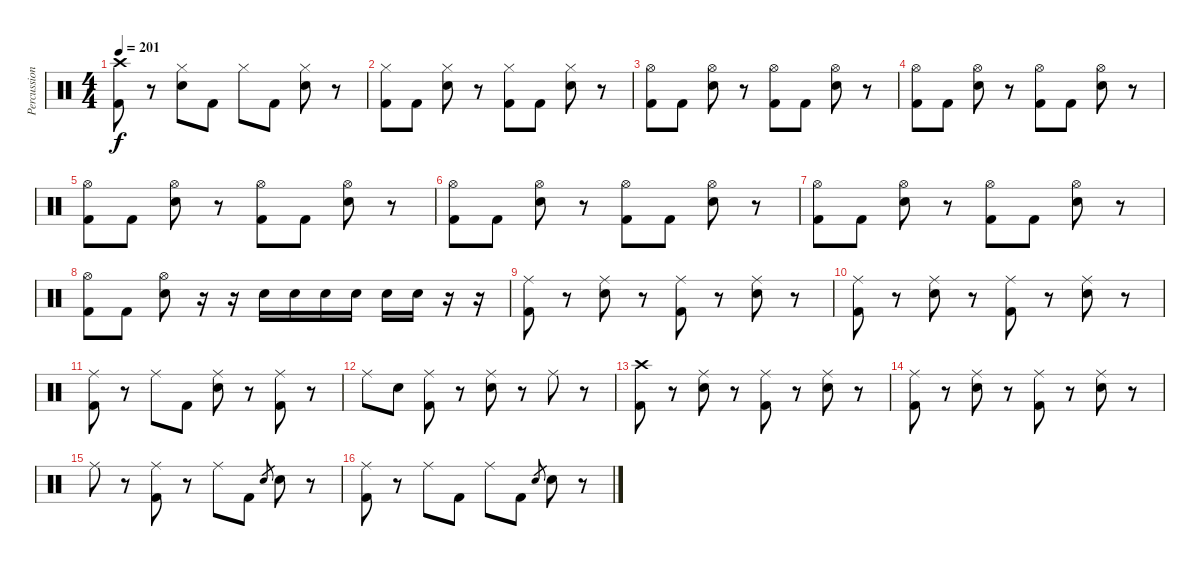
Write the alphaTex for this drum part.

\track ("Percussion" "Percussion") {instrument percussion}
\staff {score}
\articulation defaults
\ts (4 4)
\tempo 201
\clef neutral
\ks c
("Crash high (hit)" "Kick (hit) 2").8{dy f} r.8 ("Hi-Hat (closed)" "Electric Snare (hit)").8 "Kick (hit) 2".8 "Hi-Hat (closed)".8 "Kick (hit) 2".8 ("Hi-Hat (closed)" "Electric Snare (hit)").8 r.8 |
("Hi-Hat (closed)" "Kick (hit) 2").8 "Kick (hit) 2".8 ("Hi-Hat (closed)" "Electric Snare (hit)").8 r.8 ("Hi-Hat (closed)" "Kick (hit) 2").8 "Kick (hit) 2".8 ("Hi-Hat (closed)" "Electric Snare (hit)").8 r.8 |
("Hi-Hat (open)" "Kick (hit) 2").8 "Kick (hit) 2".8 ("Hi-Hat (open)" "Electric Snare (hit)").8 r.8 ("Hi-Hat (open)" "Kick (hit) 2").8 "Kick (hit) 2".8 ("Hi-Hat (open)" "Electric Snare (hit)").8 r.8 |
("Hi-Hat (open)" "Kick (hit) 2").8 "Kick (hit) 2".8 ("Hi-Hat (open)" "Electric Snare (hit)").8 r.8 ("Hi-Hat (open)" "Kick (hit) 2").8 "Kick (hit) 2".8 ("Hi-Hat (open)" "Electric Snare (hit)").8 r.8 |
("Hi-Hat (open)" "Kick (hit) 2").8 "Kick (hit) 2".8 ("Hi-Hat (open)" "Electric Snare (hit)").8 r.8 ("Hi-Hat (open)" "Kick (hit) 2").8 "Kick (hit) 2".8 ("Hi-Hat (open)" "Electric Snare (hit)").8 r.8 |
("Hi-Hat (open)" "Kick (hit) 2").8 "Kick (hit) 2".8 ("Hi-Hat (open)" "Electric Snare (hit)").8 r.8 ("Hi-Hat (open)" "Kick (hit) 2").8 "Kick (hit) 2".8 ("Hi-Hat (open)" "Electric Snare (hit)").8 r.8 |
("Hi-Hat (open)" "Kick (hit) 2").8 "Kick (hit) 2".8 ("Hi-Hat (open)" "Electric Snare (hit)").8 r.8 ("Hi-Hat (open)" "Kick (hit) 2").8 "Kick (hit) 2".8 ("Hi-Hat (open)" "Electric Snare (hit)").8 r.8 |
("Hi-Hat (open)" "Kick (hit) 2").8 "Kick (hit) 2".8 ("Hi-Hat (open)" "Electric Snare (hit)").8 r.16 r.16 "Electric Snare (hit)".16 "Electric Snare (hit)".16 "Electric Snare (hit)".16 "Electric Snare (hit)".16 "Electric Snare (hit)".16 "Electric Snare (hit)".16 r.16 r.16 |
("Ride (middle)" "Kick (hit) 2").8 r.8 ("Ride (middle)" "Electric Snare (hit)").8 r.8 ("Ride (middle)" "Kick (hit) 2").8 r.8 ("Ride (middle)" "Electric Snare (hit)").8 r.8 |
("Ride (middle)" "Kick (hit) 2").8 r.8 ("Ride (middle)" "Electric Snare (hit)").8 r.8 ("Ride (middle)" "Kick (hit) 2").8 r.8 ("Ride (middle)" "Electric Snare (hit)").8 r.8 |
("Ride (middle)" "Kick (hit) 2").8 r.8 "Ride (middle)".8 "Kick (hit) 2".8 ("Ride (middle)" "Electric Snare (hit)").8 r.8 ("Ride (middle)" "Kick (hit) 2").8 r.8 |
"Ride (middle)".8 "Electric Snare (hit)".8 ("Ride (middle)" "Kick (hit) 2").8 r.8 ("Ride (middle)" "Electric Snare (hit)").8 r.8 "Ride (middle)".8 r.8 |
("Crash high (hit)" "Kick (hit) 2").8 r.8 ("Ride (middle)" "Electric Snare (hit)").8 r.8 ("Ride (middle)" "Kick (hit) 2").8 r.8 ("Ride (middle)" "Electric Snare (hit)").8 r.8 |
("Ride (middle)" "Kick (hit) 2").8 r.8 ("Ride (middle)" "Electric Snare (hit)").8 r.8 ("Ride (middle)" "Kick (hit) 2").8 r.8 ("Ride (middle)" "Electric Snare (hit)").8 r.8 |
"Ride (middle)".8 r.8 ("Ride (middle)" "Kick (hit) 2").8 r.8 "Ride (middle)".8 "Kick (hit) 2".8 "Electric Snare (hit)".8{gr} "Electric Snare (hit)".8 r.8 |
("Ride (middle)" "Kick (hit) 2").8 r.8 "Ride (middle)".8 "Kick (hit) 2".8 "Ride (middle)".8 "Kick (hit) 2".8 "Electric Snare (hit)".8{gr} "Electric Snare (hit)".8 r.8
